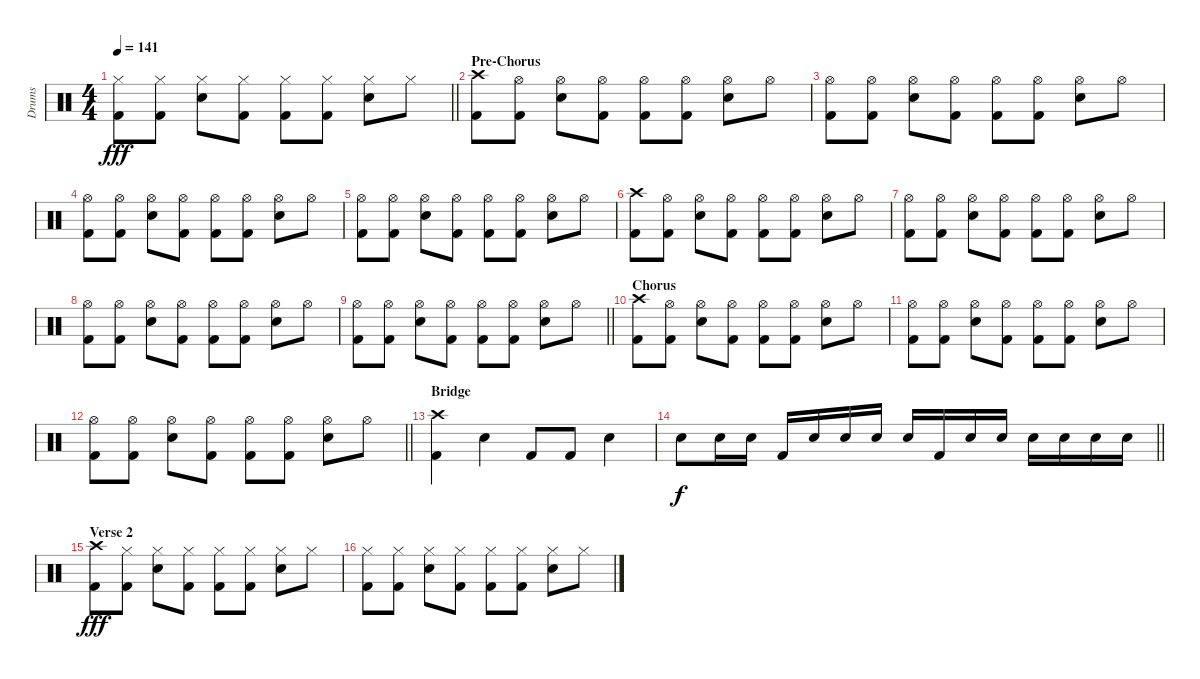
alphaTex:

\track ("Drums" "Drums") {instrument percussion}
\staff {score}
\articulation defaults
\ts (4 4)
\tempo 141
\clef neutral
\barLineRight lightlight
\ks c
("Hi-Hat (closed)" "Kick (hit) 2").8{dy fff} ("Hi-Hat (closed)" "Kick (hit) 2").8 ("Hi-Hat (closed)" "Electric Snare (hit)").8 ("Hi-Hat (closed)" "Kick (hit) 2").8 ("Hi-Hat (closed)" "Kick (hit) 2").8 ("Hi-Hat (closed)" "Kick (hit) 2").8 ("Hi-Hat (closed)" "Electric Snare (hit)").8 "Hi-Hat (closed)".8 |
\section ("" "Pre-Chorus")
("Crash high (hit)" "Kick (hit) 2").8 ("Hi-Hat (open)" "Kick (hit) 2").8 ("Hi-Hat (open)" "Electric Snare (hit)").8 ("Hi-Hat (open)" "Kick (hit) 2").8 ("Hi-Hat (open)" "Kick (hit) 2").8 ("Hi-Hat (open)" "Kick (hit) 2").8 ("Hi-Hat (open)" "Electric Snare (hit)").8 "Hi-Hat (open)".8 |
("Hi-Hat (open)" "Kick (hit) 2").8 ("Hi-Hat (open)" "Kick (hit) 2").8 ("Hi-Hat (open)" "Electric Snare (hit)").8 ("Hi-Hat (open)" "Kick (hit) 2").8 ("Hi-Hat (open)" "Kick (hit) 2").8 ("Hi-Hat (open)" "Kick (hit) 2").8 ("Hi-Hat (open)" "Electric Snare (hit)").8 "Hi-Hat (open)".8 |
("Hi-Hat (open)" "Kick (hit) 2").8 ("Hi-Hat (open)" "Kick (hit) 2").8 ("Hi-Hat (open)" "Electric Snare (hit)").8 ("Hi-Hat (open)" "Kick (hit) 2").8 ("Hi-Hat (open)" "Kick (hit) 2").8 ("Hi-Hat (open)" "Kick (hit) 2").8 ("Hi-Hat (open)" "Electric Snare (hit)").8 "Hi-Hat (open)".8 |
("Hi-Hat (open)" "Kick (hit) 2").8 ("Hi-Hat (open)" "Kick (hit) 2").8 ("Hi-Hat (open)" "Electric Snare (hit)").8 ("Hi-Hat (open)" "Kick (hit) 2").8 ("Hi-Hat (open)" "Kick (hit) 2").8 ("Hi-Hat (open)" "Kick (hit) 2").8 ("Hi-Hat (open)" "Electric Snare (hit)").8 "Hi-Hat (open)".8 |
("Crash high (hit)" "Kick (hit) 2").8 ("Hi-Hat (open)" "Kick (hit) 2").8 ("Hi-Hat (open)" "Electric Snare (hit)").8 ("Hi-Hat (open)" "Kick (hit) 2").8 ("Hi-Hat (open)" "Kick (hit) 2").8 ("Hi-Hat (open)" "Kick (hit) 2").8 ("Hi-Hat (open)" "Electric Snare (hit)").8 "Hi-Hat (open)".8 |
("Hi-Hat (open)" "Kick (hit) 2").8 ("Hi-Hat (open)" "Kick (hit) 2").8 ("Hi-Hat (open)" "Electric Snare (hit)").8 ("Hi-Hat (open)" "Kick (hit) 2").8 ("Hi-Hat (open)" "Kick (hit) 2").8 ("Hi-Hat (open)" "Kick (hit) 2").8 ("Hi-Hat (open)" "Electric Snare (hit)").8 "Hi-Hat (open)".8 |
("Hi-Hat (open)" "Kick (hit) 2").8 ("Hi-Hat (open)" "Kick (hit) 2").8 ("Hi-Hat (open)" "Electric Snare (hit)").8 ("Hi-Hat (open)" "Kick (hit) 2").8 ("Hi-Hat (open)" "Kick (hit) 2").8 ("Hi-Hat (open)" "Kick (hit) 2").8 ("Hi-Hat (open)" "Electric Snare (hit)").8 "Hi-Hat (open)".8 |
\barLineRight lightlight
("Hi-Hat (open)" "Kick (hit) 2").8 ("Hi-Hat (open)" "Kick (hit) 2").8 ("Hi-Hat (open)" "Electric Snare (hit)").8 ("Hi-Hat (open)" "Kick (hit) 2").8 ("Hi-Hat (open)" "Kick (hit) 2").8 ("Hi-Hat (open)" "Kick (hit) 2").8 ("Hi-Hat (open)" "Electric Snare (hit)").8 "Hi-Hat (open)".8 |
\section ("" "Chorus")
("Crash high (hit)" "Kick (hit) 2").8 ("Hi-Hat (open)" "Kick (hit) 2").8 ("Hi-Hat (open)" "Electric Snare (hit)").8 ("Hi-Hat (open)" "Kick (hit) 2").8 ("Hi-Hat (open)" "Kick (hit) 2").8 ("Hi-Hat (open)" "Kick (hit) 2").8 ("Hi-Hat (open)" "Electric Snare (hit)").8 "Hi-Hat (open)".8 |
("Hi-Hat (open)" "Kick (hit) 2").8 ("Hi-Hat (open)" "Kick (hit) 2").8 ("Hi-Hat (open)" "Electric Snare (hit)").8 ("Hi-Hat (open)" "Kick (hit) 2").8 ("Hi-Hat (open)" "Kick (hit) 2").8 ("Hi-Hat (open)" "Kick (hit) 2").8 ("Hi-Hat (open)" "Electric Snare (hit)").8 "Hi-Hat (open)".8 |
\barLineRight lightlight
("Hi-Hat (open)" "Kick (hit) 2").8 ("Hi-Hat (open)" "Kick (hit) 2").8 ("Hi-Hat (open)" "Electric Snare (hit)").8 ("Hi-Hat (open)" "Kick (hit) 2").8 ("Hi-Hat (open)" "Kick (hit) 2").8 ("Hi-Hat (open)" "Kick (hit) 2").8 ("Hi-Hat (open)" "Electric Snare (hit)").8 "Hi-Hat (open)".8 |
\section ("" "Bridge")
("Crash high (hit)" "Kick (hit) 2").4 "Electric Snare (hit)".4 "Kick (hit) 2".8 "Kick (hit) 2".8 "Electric Snare (hit)".4 |
\barLineRight lightlight "Electric Snare (hit)".8{dy f} "Electric Snare (hit)".16 "Electric Snare (hit)".16 "Kick (hit) 2".16 "Electric Snare (hit)".16 "Electric Snare (hit)".16 "Electric Snare (hit)".16 "Electric Snare (hit)".16 "Kick (hit) 2".16 "Electric Snare (hit)".16 "Electric Snare (hit)".16 "Electric Snare (hit)".16 "Electric Snare (hit)".16 "Electric Snare (hit)".16 "Electric Snare (hit)".16
|
\section ("" "Verse 2")
("Crash high (hit)" "Kick (hit) 2").8{dy fff} ("Hi-Hat (closed)" "Kick (hit) 2").8 ("Hi-Hat (closed)" "Electric Snare (hit)").8 ("Hi-Hat (closed)" "Kick (hit) 2").8 ("Hi-Hat (closed)" "Kick (hit) 2").8 ("Hi-Hat (closed)" "Kick (hit) 2").8 ("Hi-Hat (closed)" "Electric Snare (hit)").8 "Hi-Hat (closed)".8 |
("Hi-Hat (closed)" "Kick (hit) 2").8 ("Hi-Hat (closed)" "Kick (hit) 2").8 ("Hi-Hat (closed)" "Electric Snare (hit)").8 ("Hi-Hat (closed)" "Kick (hit) 2").8 ("Hi-Hat (closed)" "Kick (hit) 2").8 ("Hi-Hat (closed)" "Kick (hit) 2").8 ("Hi-Hat (closed)" "Electric Snare (hit)").8 "Hi-Hat (closed)".8
